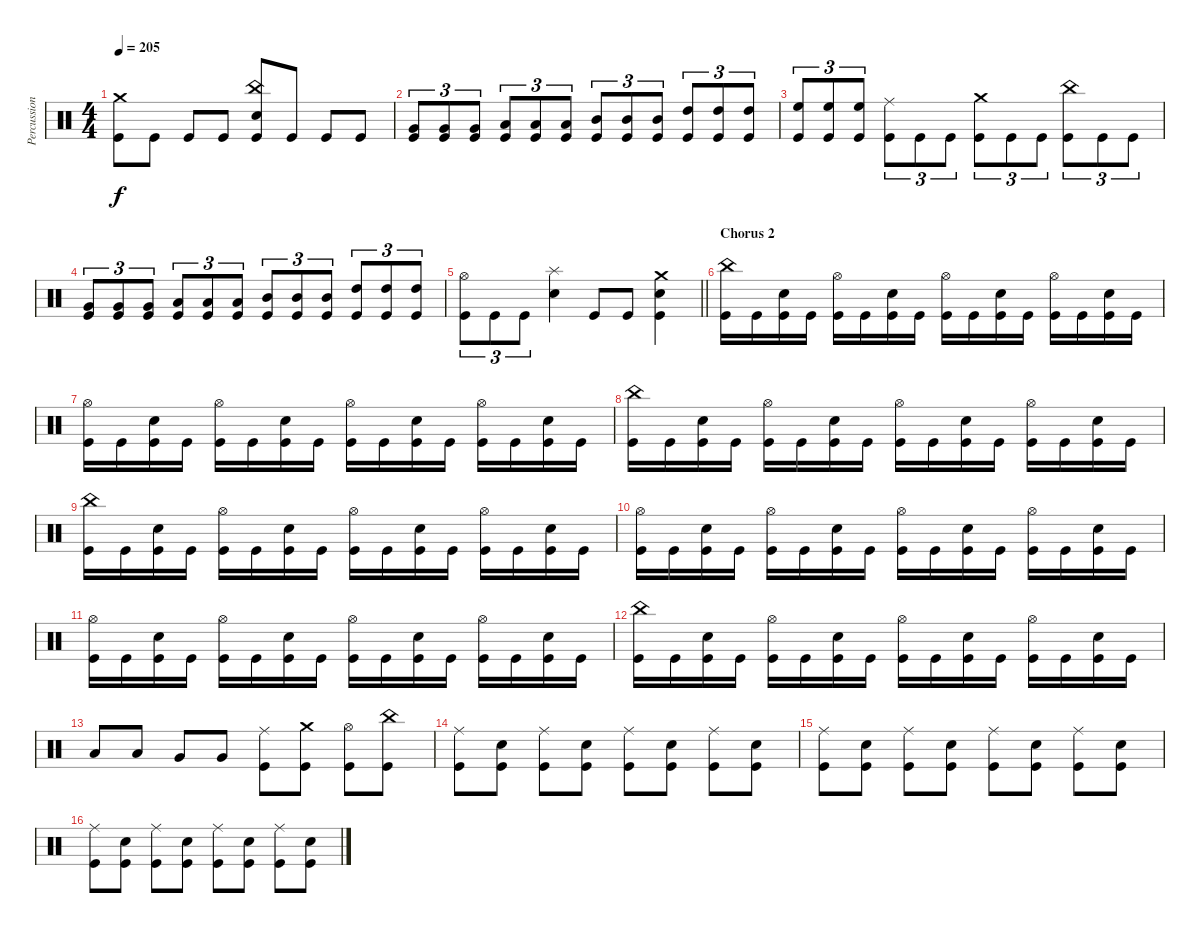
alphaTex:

\track ("Percussion" "Percussion") {instrument percussion}
\staff {score}
\articulation defaults
\ts (4 4)
\tempo 205
\clef neutral
\ks c
("Crash medium (hit)" "Kick (hit)").8{dy f} "Kick (hit)".8 "Kick (hit)".8 "Kick (hit)".8 ("China (hit)" "Electric Snare (hit)" "Kick (hit)").8 "Kick (hit)".8 "Kick (hit)".8 "Kick (hit)".8 |
("Very Low Tom (hit)" "Kick (hit)").8{tu (3 2)} ("Very Low Tom (hit)" "Kick (hit)").8{tu (3 2)} ("Very Low Tom (hit)" "Kick (hit)").8{tu (3 2)} ("Low Tom (hit)" "Kick (hit)").8{tu (3 2)} ("Low Tom (hit)" "Kick (hit)").8{tu (3 2)} ("Low Tom (hit)" "Kick (hit)").8{tu (3 2)} ("Mid Tom (hit)" "Kick (hit)").8{tu (3 2)} ("Mid Tom (hit)" "Kick (hit)").8{tu (3 2)} ("Mid Tom (hit)" "Kick (hit)").8{tu (3 2)} ("High Tom (hit)" "Kick (hit)").8{tu (3 2)} ("High Tom (hit)" "Kick (hit)").8{tu (3 2)} ("High Tom (hit)" "Kick (hit)").8{tu (3 2)} |
("High Floor Tom (hit)" "Kick (hit)").8{tu (3 2)} ("High Floor Tom (hit)" "Kick (hit)").8{tu (3 2)} ("High Floor Tom (hit)" "Kick (hit)").8{tu (3 2)} ("Ride (middle)" "Kick (hit)").8{tu (3 2)} "Kick (hit)".8{tu (3 2)} "Kick (hit)".8{tu (3 2)} ("Crash medium (hit)" "Kick (hit)").8{tu (3 2)} "Kick (hit)".8{tu (3 2)} "Kick (hit)".8{tu (3 2)} ("China (hit)" "Kick (hit)").8{tu (3 2)} "Kick (hit)".8{tu (3 2)} "Kick (hit)".8{tu (3 2)} |
("Very Low Tom (hit)" "Kick (hit)").8{tu (3 2)} ("Very Low Tom (hit)" "Kick (hit)").8{tu (3 2)} ("Very Low Tom (hit)" "Kick (hit)").8{tu (3 2)} ("Low Tom (hit)" "Kick (hit)").8{tu (3 2)} ("Low Tom (hit)" "Kick (hit)").8{tu (3 2)} ("Low Tom (hit)" "Kick (hit)").8{tu (3 2)} ("Mid Tom (hit)" "Kick (hit)").8{tu (3 2)} ("Mid Tom (hit)" "Kick (hit)").8{tu (3 2)} ("Mid Tom (hit)" "Kick (hit)").8{tu (3 2)} ("High Tom (hit)" "Kick (hit)").8{tu (3 2)} ("High Tom (hit)" "Kick (hit)").8{tu (3 2)} ("High Tom (hit)" "Kick (hit)").8{tu (3 2)} |
\barLineRight lightlight
("Hi-Hat (open)" "Kick (hit)").8{tu (3 2)} "Kick (hit)".8{tu (3 2)} "Kick (hit)".8{tu (3 2)} ("Splash (hit)" "Electric Snare (hit)").4 "Kick (hit)".8 "Kick (hit)".8 ("Crash medium (hit)" "Electric Snare (hit)" "Kick (hit)").4 |
\section ("" "Chorus 2")
("China (hit)" "Kick (hit)").16 "Kick (hit)".16 ("Electric Snare (hit)" "Kick (hit)").16 "Kick (hit)".16 ("Hi-Hat (open)" "Kick (hit)").16 "Kick (hit)".16 ("Electric Snare (hit)" "Kick (hit)").16 "Kick (hit)".16 ("Hi-Hat (open)" "Kick (hit)").16 "Kick (hit)".16 ("Electric Snare (hit)" "Kick (hit)").16 "Kick (hit)".16 ("Hi-Hat (open)" "Kick (hit)").16 "Kick (hit)".16 ("Electric Snare (hit)" "Kick (hit)").16 "Kick (hit)".16 |
("Hi-Hat (open)" "Kick (hit)").16 "Kick (hit)".16 ("Electric Snare (hit)" "Kick (hit)").16 "Kick (hit)".16 ("Hi-Hat (open)" "Kick (hit)").16 "Kick (hit)".16 ("Electric Snare (hit)" "Kick (hit)").16 "Kick (hit)".16 ("Hi-Hat (open)" "Kick (hit)").16 "Kick (hit)".16 ("Electric Snare (hit)" "Kick (hit)").16 "Kick (hit)".16 ("Hi-Hat (open)" "Kick (hit)").16 "Kick (hit)".16 ("Electric Snare (hit)" "Kick (hit)").16 "Kick (hit)".16 |
("China (hit)" "Kick (hit)").16 "Kick (hit)".16 ("Electric Snare (hit)" "Kick (hit)").16 "Kick (hit)".16 ("Hi-Hat (open)" "Kick (hit)").16 "Kick (hit)".16 ("Electric Snare (hit)" "Kick (hit)").16 "Kick (hit)".16 ("Hi-Hat (open)" "Kick (hit)").16 "Kick (hit)".16 ("Electric Snare (hit)" "Kick (hit)").16 "Kick (hit)".16 ("Hi-Hat (open)" "Kick (hit)").16 "Kick (hit)".16 ("Electric Snare (hit)" "Kick (hit)").16 "Kick (hit)".16 |
("China (hit)" "Kick (hit)").16 "Kick (hit)".16 ("Electric Snare (hit)" "Kick (hit)").16 "Kick (hit)".16 ("Hi-Hat (open)" "Kick (hit)").16 "Kick (hit)".16 ("Electric Snare (hit)" "Kick (hit)").16 "Kick (hit)".16 ("Hi-Hat (open)" "Kick (hit)").16 "Kick (hit)".16 ("Electric Snare (hit)" "Kick (hit)").16 "Kick (hit)".16 ("Hi-Hat (open)" "Kick (hit)").16 "Kick (hit)".16 ("Electric Snare (hit)" "Kick (hit)").16 "Kick (hit)".16 |
("Hi-Hat (open)" "Kick (hit)").16 "Kick (hit)".16 ("Electric Snare (hit)" "Kick (hit)").16 "Kick (hit)".16 ("Hi-Hat (open)" "Kick (hit)").16 "Kick (hit)".16 ("Electric Snare (hit)" "Kick (hit)").16 "Kick (hit)".16 ("Hi-Hat (open)" "Kick (hit)").16 "Kick (hit)".16 ("Electric Snare (hit)" "Kick (hit)").16 "Kick (hit)".16 ("Hi-Hat (open)" "Kick (hit)").16 "Kick (hit)".16 ("Electric Snare (hit)" "Kick (hit)").16 "Kick (hit)".16 |
("Hi-Hat (open)" "Kick (hit)").16 "Kick (hit)".16 ("Electric Snare (hit)" "Kick (hit)").16 "Kick (hit)".16 ("Hi-Hat (open)" "Kick (hit)").16 "Kick (hit)".16 ("Electric Snare (hit)" "Kick (hit)").16 "Kick (hit)".16 ("Hi-Hat (open)" "Kick (hit)").16 "Kick (hit)".16 ("Electric Snare (hit)" "Kick (hit)").16 "Kick (hit)".16 ("Hi-Hat (open)" "Kick (hit)").16 "Kick (hit)".16 ("Electric Snare (hit)" "Kick (hit)").16 "Kick (hit)".16 |
("China (hit)" "Kick (hit)").16 "Kick (hit)".16 ("Electric Snare (hit)" "Kick (hit)").16 "Kick (hit)".16 ("Hi-Hat (open)" "Kick (hit)").16 "Kick (hit)".16 ("Electric Snare (hit)" "Kick (hit)").16 "Kick (hit)".16 ("Hi-Hat (open)" "Kick (hit)").16 "Kick (hit)".16 ("Electric Snare (hit)" "Kick (hit)").16 "Kick (hit)".16 ("Hi-Hat (open)" "Kick (hit)").16 "Kick (hit)".16 ("Electric Snare (hit)" "Kick (hit)").16 "Kick (hit)".16 |
"Low Tom (hit)".8 "Low Tom (hit)".8 "Very Low Tom (hit)".8 "Very Low Tom (hit)".8 ("Ride (middle)" "Kick (hit)").8 ("Crash medium (hit)" "Kick (hit)").8 ("Hi-Hat (open)" "Kick (hit)").8 ("China (hit)" "Kick (hit)").8 |
("Ride (middle)" "Kick (hit)").8 ("Electric Snare (hit)" "Kick (hit)").8 ("Ride (middle)" "Kick (hit)").8 ("Electric Snare (hit)" "Kick (hit)").8 ("Ride (middle)" "Kick (hit)").8 ("Electric Snare (hit)" "Kick (hit)").8 ("Ride (middle)" "Kick (hit)").8 ("Electric Snare (hit)" "Kick (hit)").8 |
("Ride (middle)" "Kick (hit)").8 ("Electric Snare (hit)" "Kick (hit)").8 ("Ride (middle)" "Kick (hit)").8 ("Electric Snare (hit)" "Kick (hit)").8 ("Ride (middle)" "Kick (hit)").8 ("Electric Snare (hit)" "Kick (hit)").8 ("Ride (middle)" "Kick (hit)").8 ("Electric Snare (hit)" "Kick (hit)").8 |
("Ride (middle)" "Kick (hit)").8 ("Electric Snare (hit)" "Kick (hit)").8 ("Ride (middle)" "Kick (hit)").8 ("Electric Snare (hit)" "Kick (hit)").8 ("Ride (middle)" "Kick (hit)").8 ("Electric Snare (hit)" "Kick (hit)").8 ("Ride (middle)" "Kick (hit)").8 ("Electric Snare (hit)" "Kick (hit)").8
